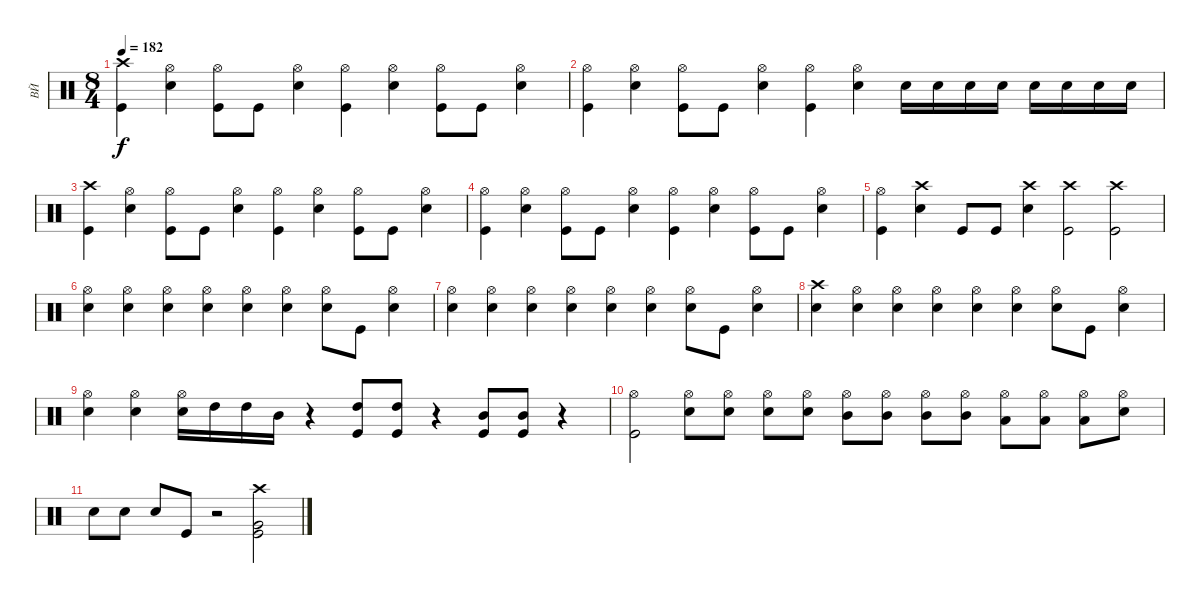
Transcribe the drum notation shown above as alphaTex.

\track ("ВЙ" "ВЙ") {instrument percussion}
\staff {score}
\articulation defaults
\ts (8 4)
\tempo 182
\clef neutral
\ks c
("Crash high (hit)" "Kick (hit)").4{dy f} ("Hi-Hat (open)" "Electric Snare (hit)").4 ("Hi-Hat (open)" "Kick (hit)").8 "Kick (hit)".8 ("Hi-Hat (open)" "Electric Snare (hit)").4 ("Hi-Hat (open)" "Kick (hit)").4 ("Hi-Hat (open)" "Electric Snare (hit)").4 ("Hi-Hat (open)" "Kick (hit)").8 "Kick (hit)".8 ("Hi-Hat (open)" "Electric Snare (hit)").4 |
("Hi-Hat (open)" "Kick (hit)").4 ("Hi-Hat (open)" "Electric Snare (hit)").4 ("Hi-Hat (open)" "Kick (hit)").8 "Kick (hit)".8 ("Hi-Hat (open)" "Electric Snare (hit)").4 ("Hi-Hat (open)" "Kick (hit)").4 ("Hi-Hat (open)" "Electric Snare (hit)").4 "Electric Snare (hit)".16 "Electric Snare (hit)".16 "Electric Snare (hit)".16 "Electric Snare (hit)".16 "Electric Snare (hit)".16 "Electric Snare (hit)".16 "Electric Snare (hit)".16 "Electric Snare (hit)".16 |
("Crash high (hit)" "Kick (hit)").4 ("Hi-Hat (open)" "Electric Snare (hit)").4 ("Hi-Hat (open)" "Kick (hit)").8 "Kick (hit)".8 ("Hi-Hat (open)" "Electric Snare (hit)").4 ("Hi-Hat (open)" "Kick (hit)").4 ("Hi-Hat (open)" "Electric Snare (hit)").4 ("Hi-Hat (open)" "Kick (hit)").8 "Kick (hit)".8 ("Hi-Hat (open)" "Electric Snare (hit)").4 |
("Hi-Hat (open)" "Kick (hit)").4 ("Hi-Hat (open)" "Electric Snare (hit)").4 ("Hi-Hat (open)" "Kick (hit)").8 "Kick (hit)".8 ("Hi-Hat (open)" "Electric Snare (hit)").4 ("Hi-Hat (open)" "Kick (hit)").4 ("Hi-Hat (open)" "Electric Snare (hit)").4 ("Hi-Hat (open)" "Kick (hit)").8 "Kick (hit)".8 ("Hi-Hat (open)" "Electric Snare (hit)").4 |
("Hi-Hat (open)" "Kick (hit)").4 ("Crash high (hit)" "Electric Snare (hit)").4 "Kick (hit)".8 "Kick (hit)".8 ("Crash high (hit)" "Electric Snare (hit)").4 ("Crash high (hit)" "Kick (hit)").2 ("Crash high (hit)" "Kick (hit)").2 |
("Hi-Hat (open)" "Electric Snare (hit)").4 ("Hi-Hat (open)" "Electric Snare (hit)").4 ("Hi-Hat (open)" "Electric Snare (hit)").4 ("Hi-Hat (open)" "Electric Snare (hit)").4 ("Hi-Hat (open)" "Electric Snare (hit)").4 ("Hi-Hat (open)" "Electric Snare (hit)").4 ("Hi-Hat (open)" "Electric Snare (hit)").8 "Kick (hit)".8 ("Hi-Hat (open)" "Electric Snare (hit)").4 |
("Hi-Hat (open)" "Electric Snare (hit)").4 ("Hi-Hat (open)" "Electric Snare (hit)").4 ("Hi-Hat (open)" "Electric Snare (hit)").4 ("Hi-Hat (open)" "Electric Snare (hit)").4 ("Hi-Hat (open)" "Electric Snare (hit)").4 ("Hi-Hat (open)" "Electric Snare (hit)").4 ("Hi-Hat (open)" "Electric Snare (hit)").8 "Kick (hit)".8 ("Hi-Hat (open)" "Electric Snare (hit)").4 |
("Crash high (hit)" "Electric Snare (hit)").4 ("Hi-Hat (open)" "Electric Snare (hit)").4 ("Hi-Hat (open)" "Electric Snare (hit)").4 ("Hi-Hat (open)" "Electric Snare (hit)").4 ("Hi-Hat (open)" "Electric Snare (hit)").4 ("Hi-Hat (open)" "Electric Snare (hit)").4 ("Hi-Hat (open)" "Electric Snare (hit)").8 "Kick (hit)".8 ("Hi-Hat (open)" "Electric Snare (hit)").4 |
("Hi-Hat (open)" "Electric Snare (hit)").4 ("Hi-Hat (open)" "Electric Snare (hit)").4 ("Hi-Hat (open)" "Electric Snare (hit)").16 "High Tom (hit)".16 "High Tom (hit)".16 "Mid Tom (hit)".16 r.4 ("High Tom (hit)" "Kick (hit)").8 ("High Tom (hit)" "Kick (hit)").8 r.4 ("Mid Tom (hit)" "Kick (hit)").8 ("Mid Tom (hit)" "Kick (hit)").8 r.4 |
("Hi-Hat (open)" "Kick (hit)").2 ("Hi-Hat (open)" "Electric Snare (hit)").8 ("Hi-Hat (open)" "Electric Snare (hit)").8 ("Hi-Hat (open)" "Electric Snare (hit)").8 ("Hi-Hat (open)" "Electric Snare (hit)").8 ("Hi-Hat (open)" "Mid Tom (hit)").8 ("Hi-Hat (open)" "Mid Tom (hit)").8 ("Hi-Hat (open)" "Mid Tom (hit)").8 ("Hi-Hat (open)" "Mid Tom (hit)").8 ("Hi-Hat (open)" "Low Tom (hit)").8 ("Hi-Hat (open)" "Low Tom (hit)").8 ("Hi-Hat (open)" "Low Tom (hit)").8 ("Hi-Hat (open)" "Electric Snare (hit)").8 |
"Electric Snare (hit)".8 "Electric Snare (hit)".8 "Electric Snare (hit)".8 "Kick (hit)".8 r.2 ("Crash high (hit)" "Very Low Tom (hit)" "Kick (hit)").2
